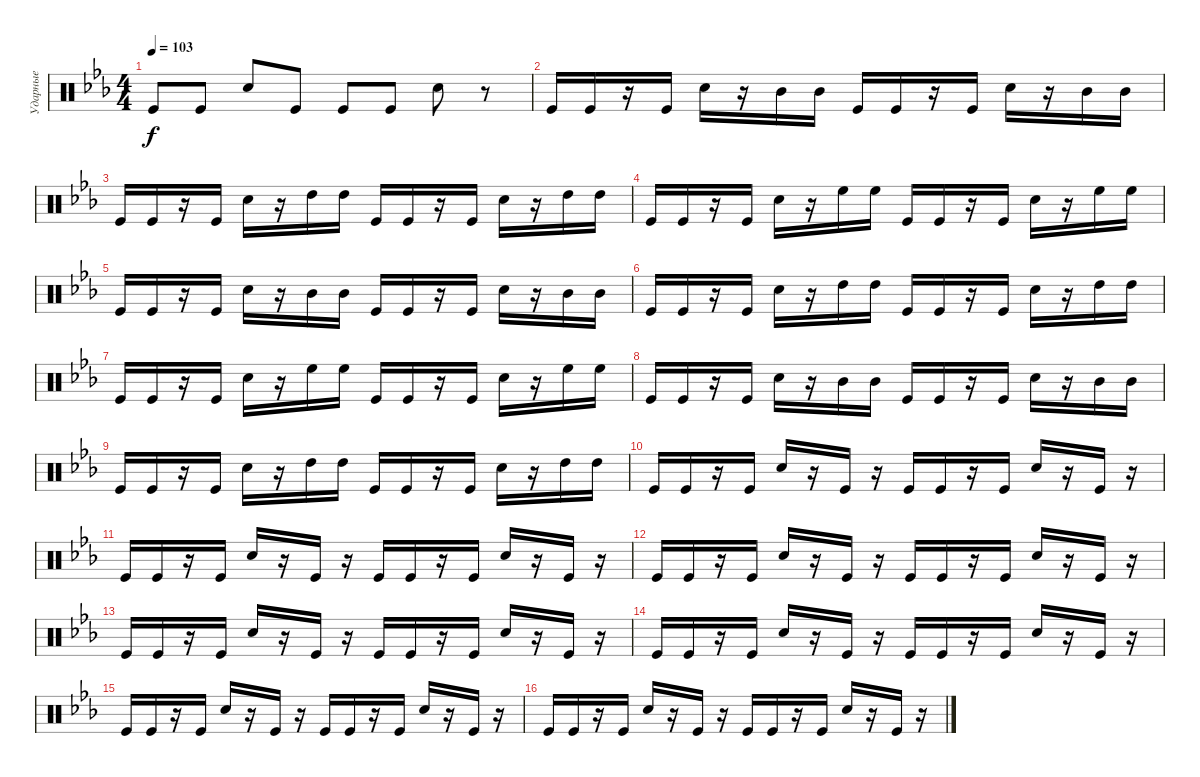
\track ("Ударные" "Ударные") {instrument percussion}
\staff {score}
\articulation defaults
\ts (4 4)
\tempo 103
\clef neutral
\ks cminor "Kick (hit)".8{dy f} "Kick (hit)".8 "Electric Snare (hit)".8 "Kick (hit)".8 "Kick (hit)".8 "Kick (hit)".8 "Electric Snare (hit)".8
r.8 |
"Kick (hit)".16 "Kick (hit)".16 r.16 "Kick (hit)".16 "Electric Snare (hit)".16 r.16 "Mid Tom (hit)".16 "Mid Tom (hit)".16 "Kick (hit)".16 "Kick (hit)".16 r.16 "Kick (hit)".16 "Electric Snare (hit)".16 r.16 "Mid Tom (hit)".16 "Mid Tom (hit)".16 |
"Kick (hit)".16 "Kick (hit)".16 r.16 "Kick (hit)".16 "Electric Snare (hit)".16 r.16 "High Tom (hit)".16 "High Tom (hit)".16 "Kick (hit)".16 "Kick (hit)".16 r.16 "Kick (hit)".16 "Electric Snare (hit)".16 r.16 "High Tom (hit)".16 "High Tom (hit)".16 |
"Kick (hit)".16 "Kick (hit)".16 r.16 "Kick (hit)".16 "Electric Snare (hit)".16 r.16 "High Floor Tom (hit)".16 "High Floor Tom (hit)".16 "Kick (hit)".16 "Kick (hit)".16 r.16 "Kick (hit)".16 "Electric Snare (hit)".16 r.16 "High Floor Tom (hit)".16 "High Floor Tom (hit)".16 |
"Kick (hit)".16 "Kick (hit)".16 r.16 "Kick (hit)".16 "Electric Snare (hit)".16 r.16 "Mid Tom (hit)".16 "Mid Tom (hit)".16 "Kick (hit)".16 "Kick (hit)".16 r.16 "Kick (hit)".16 "Electric Snare (hit)".16 r.16 "Mid Tom (hit)".16 "Mid Tom (hit)".16 |
"Kick (hit)".16 "Kick (hit)".16 r.16 "Kick (hit)".16 "Electric Snare (hit)".16 r.16 "High Tom (hit)".16 "High Tom (hit)".16 "Kick (hit)".16 "Kick (hit)".16 r.16 "Kick (hit)".16 "Electric Snare (hit)".16 r.16 "High Tom (hit)".16 "High Tom (hit)".16 |
"Kick (hit)".16 "Kick (hit)".16 r.16 "Kick (hit)".16 "Electric Snare (hit)".16 r.16 "High Floor Tom (hit)".16 "High Floor Tom (hit)".16 "Kick (hit)".16 "Kick (hit)".16 r.16 "Kick (hit)".16 "Electric Snare (hit)".16 r.16 "High Floor Tom (hit)".16 "High Floor Tom (hit)".16 |
"Kick (hit)".16 "Kick (hit)".16 r.16 "Kick (hit)".16 "Electric Snare (hit)".16 r.16 "Mid Tom (hit)".16 "Mid Tom (hit)".16 "Kick (hit)".16 "Kick (hit)".16 r.16 "Kick (hit)".16 "Electric Snare (hit)".16 r.16 "Mid Tom (hit)".16 "Mid Tom (hit)".16 |
"Kick (hit)".16 "Kick (hit)".16 r.16 "Kick (hit)".16 "Electric Snare (hit)".16 r.16 "High Tom (hit)".16 "High Tom (hit)".16 "Kick (hit)".16 "Kick (hit)".16 r.16 "Kick (hit)".16 "Electric Snare (hit)".16 r.16 "High Tom (hit)".16 "High Tom (hit)".16 |
"Kick (hit)".16 "Kick (hit)".16 r.16 "Kick (hit)".16 "Electric Snare (hit)".16 r.16 "Kick (hit)".16 r.16 "Kick (hit)".16 "Kick (hit)".16 r.16 "Kick (hit)".16 "Electric Snare (hit)".16 r.16 "Kick (hit)".16 r.16 |
"Kick (hit)".16 "Kick (hit)".16 r.16 "Kick (hit)".16 "Electric Snare (hit)".16 r.16 "Kick (hit)".16 r.16 "Kick (hit)".16 "Kick (hit)".16 r.16 "Kick (hit)".16 "Electric Snare (hit)".16 r.16 "Kick (hit)".16 r.16 |
"Kick (hit)".16 "Kick (hit)".16 r.16 "Kick (hit)".16 "Electric Snare (hit)".16 r.16 "Kick (hit)".16 r.16 "Kick (hit)".16 "Kick (hit)".16 r.16 "Kick (hit)".16 "Electric Snare (hit)".16 r.16 "Kick (hit)".16 r.16 |
"Kick (hit)".16 "Kick (hit)".16 r.16 "Kick (hit)".16 "Electric Snare (hit)".16 r.16 "Kick (hit)".16 r.16 "Kick (hit)".16 "Kick (hit)".16 r.16 "Kick (hit)".16 "Electric Snare (hit)".16 r.16 "Kick (hit)".16 r.16 |
"Kick (hit)".16 "Kick (hit)".16 r.16 "Kick (hit)".16 "Electric Snare (hit)".16 r.16 "Kick (hit)".16 r.16 "Kick (hit)".16 "Kick (hit)".16 r.16 "Kick (hit)".16 "Electric Snare (hit)".16 r.16 "Kick (hit)".16 r.16 |
"Kick (hit)".16 "Kick (hit)".16 r.16 "Kick (hit)".16 "Electric Snare (hit)".16 r.16 "Kick (hit)".16 r.16 "Kick (hit)".16 "Kick (hit)".16 r.16 "Kick (hit)".16 "Electric Snare (hit)".16 r.16 "Kick (hit)".16 r.16 |
"Kick (hit)".16 "Kick (hit)".16 r.16 "Kick (hit)".16 "Electric Snare (hit)".16 r.16 "Kick (hit)".16 r.16 "Kick (hit)".16 "Kick (hit)".16 r.16 "Kick (hit)".16 "Electric Snare (hit)".16 r.16 "Kick (hit)".16 r.16
